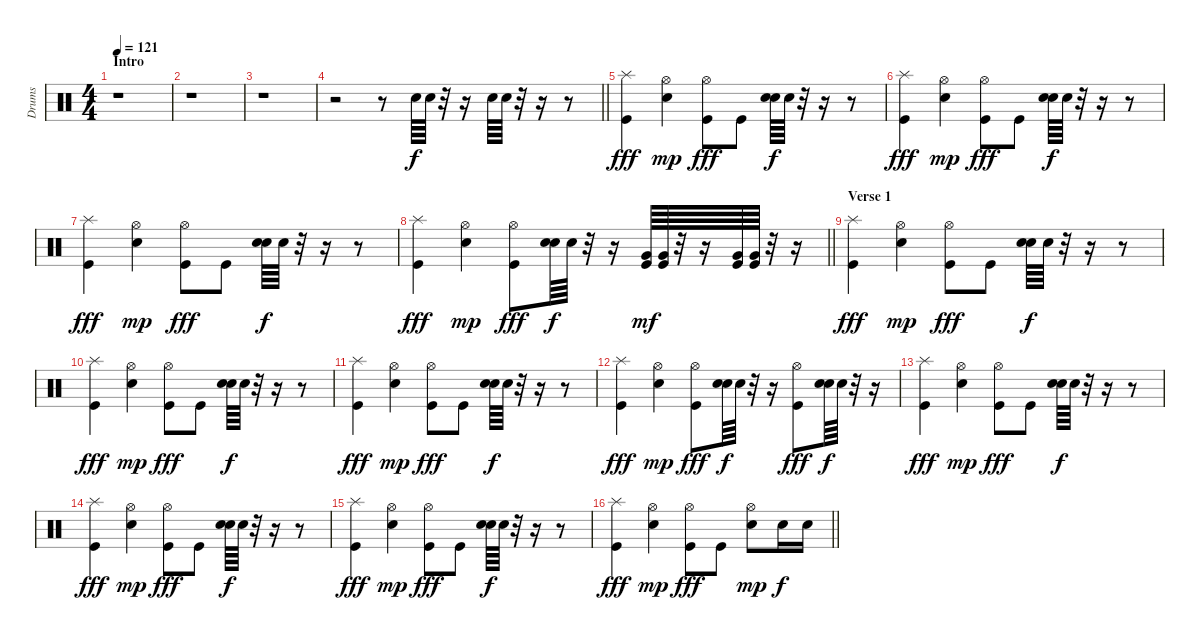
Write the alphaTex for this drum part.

\track ("Drums" "Drums") {instrument percussion}
\staff {score}
\articulation defaults
\ts (4 4)
\section ("" "Intro")
\tempo 121
\clef neutral
\ks c
r.1{dy f} |
r.1 |
r.1 |
\barLineRight lightlight
r.2 r.8 "Snare (hit) 2".64 "Snare (hit) 2".64 r.32 r.16 "Snare (hit) 2".64 "Snare (hit) 2".64 r.32 r.16 r.8 |
("Splash (hit)" "Kick (hit)").4{dy fff} ("Hi-Hat (open)" "Snare (hit) 2").4{dy mp} ("Hi-Hat (open)" "Kick (hit)").8{dy fff} "Kick (hit)".8 ("Snare (hit)"{x} "Snare (hit) 2").64{dy f} "Snare (hit) 2".64 r.32 r.16 r.8 |
("Splash (hit)" "Kick (hit)").4{dy fff} ("Hi-Hat (open)" "Snare (hit) 2").4{dy mp} ("Hi-Hat (open)" "Kick (hit)").8{dy fff} "Kick (hit)".8 ("Snare (hit)"{x} "Snare (hit) 2").64{dy f} "Snare (hit) 2".64 r.32 r.16 r.8 |
("Splash (hit)" "Kick (hit)").4{dy fff} ("Hi-Hat (open)" "Snare (hit) 2").4{dy mp} ("Hi-Hat (open)" "Kick (hit)").8{dy fff} "Kick (hit)".8 ("Snare (hit)"{x} "Snare (hit) 2").64{dy f} "Snare (hit) 2".64 r.32 r.16 r.8 |
\barLineRight lightlight
("Splash (hit)" "Kick (hit)").4{dy fff} ("Hi-Hat (open)" "Snare (hit) 2").4{dy mp} ("Hi-Hat (open)" "Kick (hit)").8{dy fff} ("Snare (hit)"{x} "Snare (hit) 2").64{dy f} "Snare (hit) 2".64 r.32 r.16 ("Very Low Tom (hit)" "Kick (hit)").64{dy mf} ("Very Low Tom (hit)" "Kick (hit)").64 r.32 r.16 ("Very Low Tom (hit)" "Kick (hit)").64 ("Very Low Tom (hit)" "Kick (hit)").64 r.32 r.16 |
\section ("" "Verse 1")
("Splash (hit)" "Kick (hit)").4{dy fff} ("Hi-Hat (open)" "Snare (hit) 2").4{dy mp} ("Hi-Hat (open)" "Kick (hit)").8{dy fff} "Kick (hit)".8 ("Snare (hit)"{x} "Snare (hit) 2").64{dy f} "Snare (hit) 2".64 r.32 r.16 r.8 |
("Splash (hit)" "Kick (hit)").4{dy fff} ("Hi-Hat (open)" "Snare (hit) 2").4{dy mp} ("Hi-Hat (open)" "Kick (hit)").8{dy fff} "Kick (hit)".8 ("Snare (hit)"{x} "Snare (hit) 2").64{dy f} "Snare (hit) 2".64 r.32 r.16 r.8 |
("Splash (hit)" "Kick (hit)").4{dy fff} ("Hi-Hat (open)" "Snare (hit) 2").4{dy mp} ("Hi-Hat (open)" "Kick (hit)").8{dy fff} "Kick (hit)".8 ("Snare (hit)"{x} "Snare (hit) 2").64{dy f} "Snare (hit) 2".64 r.32 r.16 r.8 |
("Splash (hit)" "Kick (hit)").4{dy fff} ("Hi-Hat (open)" "Snare (hit) 2").4{dy mp} ("Hi-Hat (open)" "Kick (hit)").8{dy fff} ("Snare (hit)"{x} "Snare (hit) 2").64{dy f} "Snare (hit) 2".64 r.32 r.16 ("Hi-Hat (open)" "Kick (hit)").8{dy fff} ("Snare (hit)"{x} "Snare (hit) 2").64{dy f} "Snare (hit) 2".64 r.32 r.16 |
("Splash (hit)" "Kick (hit)").4{dy fff} ("Hi-Hat (open)" "Snare (hit) 2").4{dy mp} ("Hi-Hat (open)" "Kick (hit)").8{dy fff} "Kick (hit)".8 ("Snare (hit)"{x} "Snare (hit) 2").64{dy f} "Snare (hit) 2".64 r.32 r.16 r.8 |
("Splash (hit)" "Kick (hit)").4{dy fff} ("Hi-Hat (open)" "Snare (hit) 2").4{dy mp} ("Hi-Hat (open)" "Kick (hit)").8{dy fff} "Kick (hit)".8 ("Snare (hit)"{x} "Snare (hit) 2").64{dy f} "Snare (hit) 2".64 r.32 r.16 r.8 |
("Splash (hit)" "Kick (hit)").4{dy fff} ("Hi-Hat (open)" "Snare (hit) 2").4{dy mp} ("Hi-Hat (open)" "Kick (hit)").8{dy fff} "Kick (hit)".8 ("Snare (hit)"{x} "Snare (hit) 2").64{dy f} "Snare (hit) 2".64 r.32 r.16 r.8 |
\barLineRight lightlight
("Splash (hit)" "Kick (hit)").4{dy fff} ("Hi-Hat (open)" "Snare (hit) 2").4{dy mp} ("Hi-Hat (open)" "Kick (hit)").8{dy fff} "Kick (hit)".8 ("Hi-Hat (open)" "Snare (hit) 2").8{dy mp} "Snare (hit) 2".16{dy f} "Snare (hit) 2".16
